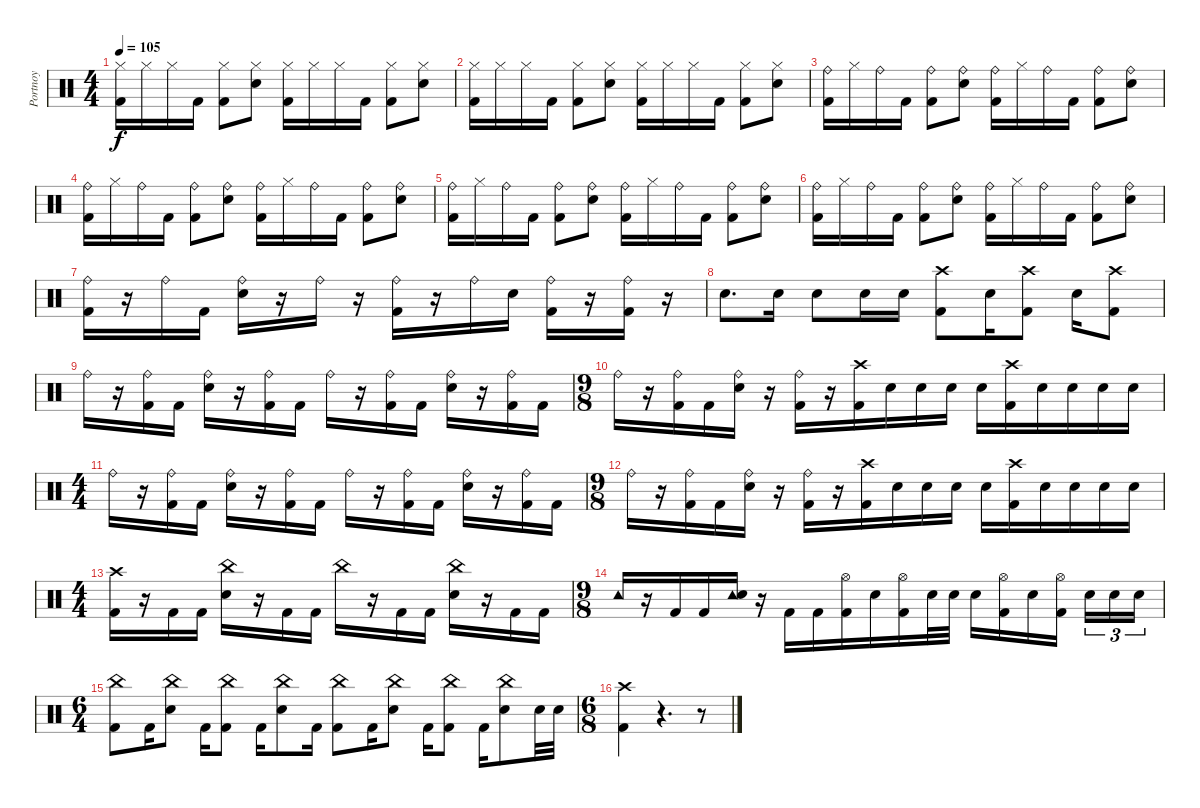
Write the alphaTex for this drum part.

\track ("Portnoy" "Portnoy") {instrument percussion}
\staff {score}
\articulation defaults
\ts (4 4)
\tempo 105
\clef neutral
\ks c
("Hi-Hat (closed)" "Kick (hit) 2").16{dy f} "Hi-Hat (closed)".16 "Hi-Hat (closed)".16 "Kick (hit) 2".16 ("Hi-Hat (closed)" "Kick (hit) 2").8 ("Hi-Hat (closed)" "Electric Snare (hit)").8 ("Hi-Hat (closed)" "Kick (hit) 2").16 "Hi-Hat (closed)".16 "Hi-Hat (closed)".16 "Kick (hit) 2".16 ("Hi-Hat (closed)" "Kick (hit) 2").8 ("Hi-Hat (closed)" "Electric Snare (hit)").8 |
("Hi-Hat (closed)" "Kick (hit) 2").16 "Hi-Hat (closed)".16 "Hi-Hat (closed)".16 "Kick (hit) 2".16 ("Hi-Hat (closed)" "Kick (hit) 2").8 ("Hi-Hat (closed)" "Electric Snare (hit)").8 ("Hi-Hat (closed)" "Kick (hit) 2").16 "Hi-Hat (closed)".16 "Hi-Hat (closed)".16 "Kick (hit) 2".16 ("Hi-Hat (closed)" "Kick (hit) 2").8 ("Hi-Hat (closed)" "Electric Snare (hit)").8 |
("Ride (bell)" "Kick (hit) 2").16 "Hi-Hat (closed)".16 "Ride (bell)".16 "Kick (hit) 2".16 ("Ride (bell)" "Kick (hit) 2").8 ("Ride (bell)" "Electric Snare (hit)").8 ("Ride (bell)" "Kick (hit) 2").16 "Hi-Hat (closed)".16 "Ride (bell)".16 "Kick (hit) 2".16 ("Ride (bell)" "Kick (hit) 2").8 ("Ride (bell)" "Electric Snare (hit)").8 |
("Ride (bell)" "Kick (hit) 2").16 "Hi-Hat (closed)".16 "Ride (bell)".16 "Kick (hit) 2".16 ("Ride (bell)" "Kick (hit) 2").8 ("Ride (bell)" "Electric Snare (hit)").8 ("Ride (bell)" "Kick (hit) 2").16 "Hi-Hat (closed)".16 "Ride (bell)".16 "Kick (hit) 2".16 ("Ride (bell)" "Kick (hit) 2").8 ("Ride (bell)" "Electric Snare (hit)").8 |
("Ride (bell)" "Kick (hit) 2").16 "Hi-Hat (closed)".16 "Ride (bell)".16 "Kick (hit) 2".16 ("Ride (bell)" "Kick (hit) 2").8 ("Ride (bell)" "Electric Snare (hit)").8 ("Ride (bell)" "Kick (hit) 2").16 "Hi-Hat (closed)".16 "Ride (bell)".16 "Kick (hit) 2".16 ("Ride (bell)" "Kick (hit) 2").8 ("Ride (bell)" "Electric Snare (hit)").8 |
("Ride (bell)" "Kick (hit) 2").16 "Hi-Hat (closed)".16 "Ride (bell)".16 "Kick (hit) 2".16 ("Ride (bell)" "Kick (hit) 2").8 ("Ride (bell)" "Electric Snare (hit)").8 ("Ride (bell)" "Kick (hit) 2").16 "Hi-Hat (closed)".16 "Ride (bell)".16 "Kick (hit) 2".16 ("Ride (bell)" "Kick (hit) 2").8 ("Ride (bell)" "Electric Snare (hit)").8 |
("Ride (bell)" "Kick (hit) 2").16 r.16 "Ride (bell)".16 "Kick (hit) 2".16 ("Ride (bell)" "Electric Snare (hit)").16 r.16 "Ride (bell)".16 r.16 ("Ride (bell)" "Kick (hit) 2").16 r.16 "Ride (bell)".16 "Electric Snare (hit)".16 ("Ride (bell)" "Kick (hit) 2").16 r.16 ("Ride (bell)" "Kick (hit) 2").16 r.16 |
"Electric Snare (hit)".8{d} "Electric Snare (hit)".16 "Electric Snare (hit)".8 "Electric Snare (hit)".16 "Electric Snare (hit)".16 ("Crash high (hit)" "Kick (hit) 2").8 "Electric Snare (hit)".16 ("Crash high (hit)" "Kick (hit) 2").8 "Electric Snare (hit)".16 ("Crash high (hit)" "Kick (hit) 2").8 |
"Ride (bell)".16 r.16 ("Ride (bell)" "Kick (hit) 2").16 "Kick (hit) 2".16 ("Ride (bell)" "Electric Snare (hit)").16 r.16 ("Ride (bell)" "Kick (hit) 2").16 "Kick (hit) 2".16 "Ride (bell)".16 r.16 ("Ride (bell)" "Kick (hit) 2").16 "Kick (hit) 2".16 ("Ride (bell)" "Electric Snare (hit)").16 r.16 ("Ride (bell)" "Kick (hit) 2").16 "Kick (hit) 2".16 |
\ts (9 8)
"Ride (bell)".16 r.16 ("Ride (bell)" "Kick (hit) 2").16 "Kick (hit) 2".16 ("Ride (bell)" "Electric Snare (hit)").16 r.16 ("Ride (bell)" "Kick (hit) 2").16 r.16 ("Crash high (hit)" "Kick (hit) 2").16 "Electric Snare (hit)".16 "Electric Snare (hit)".16 "Electric Snare (hit)".16 "Electric Snare (hit)".16 ("Crash high (hit)" "Kick (hit) 2").16 "Electric Snare (hit)".16 "Electric Snare (hit)".16 "Electric Snare (hit)".16 "Electric Snare (hit)".16 |
\ts (4 4)
"Ride (bell)".16 r.16 ("Ride (bell)" "Kick (hit) 2").16 "Kick (hit) 2".16 ("Ride (bell)" "Electric Snare (hit)").16 r.16 ("Ride (bell)" "Kick (hit) 2").16 "Kick (hit) 2".16 "Ride (bell)".16 r.16 ("Ride (bell)" "Kick (hit) 2").16 "Kick (hit) 2".16 ("Ride (bell)" "Electric Snare (hit)").16 r.16 ("Ride (bell)" "Kick (hit) 2").16 "Kick (hit) 2".16 |
\ts (9 8)
"Ride (bell)".16 r.16 ("Ride (bell)" "Kick (hit) 2").16 "Kick (hit) 2".16 ("Ride (bell)" "Electric Snare (hit)").16 r.16 ("Ride (bell)" "Kick (hit) 2").16 r.16 ("Crash high (hit)" "Kick (hit) 2").16 "Electric Snare (hit)".16 "Electric Snare (hit)".16 "Electric Snare (hit)".16 "Electric Snare (hit)".16 ("Crash high (hit)" "Kick (hit) 2").16 "Electric Snare (hit)".16 "Electric Snare (hit)".16 "Electric Snare (hit)".16 "Electric Snare (hit)".16 |
\ts (4 4)
("Crash high (hit)" "Kick (hit) 2").16 r.16 "Kick (hit) 2".16 "Kick (hit) 2".16 ("China (hit)" "Electric Snare (hit)").16 r.16 "Kick (hit) 2".16 "Kick (hit) 2".16 "China (hit)".16 r.16 "Kick (hit) 2".16 "Kick (hit) 2".16 ("China (hit)" "Electric Snare (hit)").16 r.16 "Kick (hit) 2".16 "Kick (hit) 2".16 |
\ts (9 8)
"Tambourine (hit)".16 r.16 "Kick (hit) 2".16 "Kick (hit) 2".16 ("Tambourine (hit)" "Electric Snare (hit)").16 r.16 "Kick (hit) 2".16 "Kick (hit) 2".16 ("Hi-Hat (open)" "Kick (hit) 2").16 "Electric Snare (hit)".16 ("Hi-Hat (open)" "Kick (hit) 2").16 "Electric Snare (hit)".32 "Electric Snare (hit)".32 "Electric Snare (hit)".16 ("Hi-Hat (open)" "Kick (hit) 2").16 "Electric Snare (hit)".16 ("Hi-Hat (open)" "Kick (hit) 2").16{beam splitsecondary} "Electric Snare (hit)".16{tu (3 2)} "Electric Snare (hit)".16{tu (3 2)} "Electric Snare (hit)".16{tu (3 2)} |
\ts (6 4)
("China (hit)" "Kick (hit) 2").8 "Kick (hit) 2".16 ("China (hit)" "Electric Snare (hit)").8 "Kick (hit) 2".16 ("China (hit)" "Kick (hit) 2").8 "Kick (hit) 2".16 ("China (hit)" "Electric Snare (hit)").8 "Kick (hit) 2".16 ("China (hit)" "Kick (hit) 2").8 "Kick (hit) 2".16 ("China (hit)" "Electric Snare (hit)").8 "Kick (hit) 2".16 ("China (hit)" "Kick (hit) 2").8 "Kick (hit) 2".16 ("China (hit)" "Electric Snare (hit)").8 "Electric Snare (hit)".32 "Electric Snare (hit)".32 |
\ts (6 8)
("Crash high (hit)" "Kick (hit) 2").4 r.4{d} r.8
